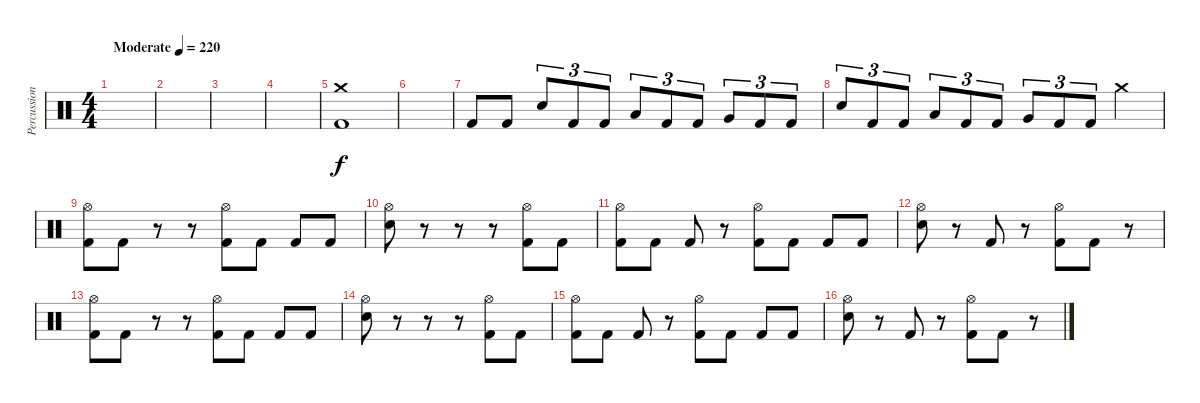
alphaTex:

\track ("Percussion" "Percussion") {instrument percussion}
\staff {score}
\articulation defaults
\ts (4 4)
\tempo (220 "Moderate")
\clef neutral
\ks c
|
|
|
|
("Crash medium (hit)" "Kick (hit) 2").1 |
|
"Kick (hit) 2".8 "Kick (hit) 2".8 "Snare (hit) 2".8{tu (3 2)} "Kick (hit) 2".8{tu (3 2)} "Kick (hit) 2".8{tu (3 2)} "Low Tom (hit)".8{tu (3 2)} "Kick (hit) 2".8{tu (3 2)} "Kick (hit) 2".8{tu (3 2)} "Very Low Tom (hit)".8{tu (3 2)} "Kick (hit) 2".8{tu (3 2)} "Kick (hit) 2".8{tu (3 2)} |
"Snare (hit) 2".8{tu (3 2)} "Kick (hit) 2".8{tu (3 2)} "Kick (hit) 2".8{tu (3 2)} "Low Tom (hit)".8{tu (3 2)} "Kick (hit) 2".8{tu (3 2)} "Kick (hit) 2".8{tu (3 2)} "Very Low Tom (hit)".8{tu (3 2)} "Kick (hit) 2".8{tu (3 2)} "Kick (hit) 2".8{tu (3 2)} "Crash medium (hit)".4 |
("Hi-Hat (open)" "Kick (hit) 2").8 "Kick (hit) 2".8 r.8 r.8 ("Hi-Hat (open)" "Kick (hit) 2").8 "Kick (hit) 2".8 "Kick (hit) 2".8 "Kick (hit) 2".8 |
("Hi-Hat (open)" "Snare (hit) 2").8 r.8 r.8 r.8 ("Hi-Hat (open)" "Kick (hit) 2").8 "Kick (hit) 2".8 |
("Hi-Hat (open)" "Kick (hit) 2").8 "Kick (hit) 2".8 "Kick (hit) 2".8 r.8 ("Hi-Hat (open)" "Kick (hit) 2").8 "Kick (hit) 2".8 "Kick (hit) 2".8 "Kick (hit) 2".8 |
("Hi-Hat (open)" "Snare (hit) 2").8 r.8 "Kick (hit) 2".8 r.8 ("Hi-Hat (open)" "Kick (hit) 2").8 "Kick (hit) 2".8 r.8 |
("Hi-Hat (open)" "Kick (hit) 2").8 "Kick (hit) 2".8 r.8 r.8 ("Hi-Hat (open)" "Kick (hit) 2").8 "Kick (hit) 2".8 "Kick (hit) 2".8 "Kick (hit) 2".8 |
("Hi-Hat (open)" "Snare (hit) 2").8 r.8 r.8 r.8 ("Hi-Hat (open)" "Kick (hit) 2").8 "Kick (hit) 2".8 |
("Hi-Hat (open)" "Kick (hit) 2").8 "Kick (hit) 2".8 "Kick (hit) 2".8 r.8 ("Hi-Hat (open)" "Kick (hit) 2").8 "Kick (hit) 2".8 "Kick (hit) 2".8 "Kick (hit) 2".8 |
("Hi-Hat (open)" "Snare (hit) 2").8 r.8 "Kick (hit) 2".8 r.8 ("Hi-Hat (open)" "Kick (hit) 2").8 "Kick (hit) 2".8 r.8
